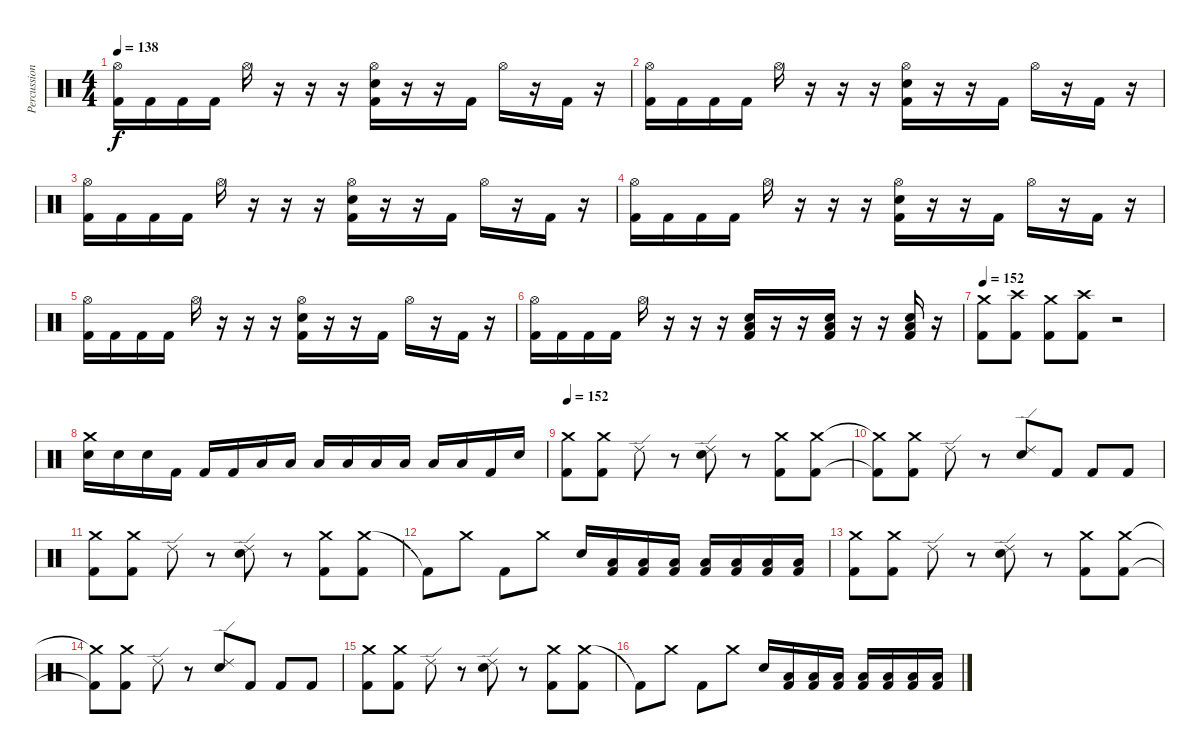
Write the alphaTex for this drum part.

\track ("Percussion" "Percussion") {instrument percussion}
\staff {score}
\articulation defaults
\ts (4 4)
\tempo 138
\clef neutral
\ks c
("Hi-Hat (open)" "Kick (hit) 2").16{dy f} "Kick (hit) 2".16 "Kick (hit) 2".16 "Kick (hit) 2".16 "Hi-Hat (open)".16 r.16 r.16 r.16 ("Hi-Hat (open)" "Electric Snare (hit)" "Kick (hit) 2").16 r.16 r.16 "Kick (hit) 2".16 "Hi-Hat (open)".16 r.16 "Kick (hit) 2".16 r.16 |
("Hi-Hat (open)" "Kick (hit) 2").16 "Kick (hit) 2".16 "Kick (hit) 2".16 "Kick (hit) 2".16 "Hi-Hat (open)".16 r.16 r.16 r.16 ("Hi-Hat (open)" "Electric Snare (hit)" "Kick (hit) 2").16 r.16 r.16 "Kick (hit) 2".16 "Hi-Hat (open)".16 r.16 "Kick (hit) 2".16 r.16 |
("Hi-Hat (open)" "Kick (hit) 2").16 "Kick (hit) 2".16 "Kick (hit) 2".16 "Kick (hit) 2".16 "Hi-Hat (open)".16 r.16 r.16 r.16 ("Hi-Hat (open)" "Electric Snare (hit)" "Kick (hit) 2").16 r.16 r.16 "Kick (hit) 2".16 "Hi-Hat (open)".16 r.16 "Kick (hit) 2".16 r.16 |
("Hi-Hat (open)" "Kick (hit) 2").16 "Kick (hit) 2".16 "Kick (hit) 2".16 "Kick (hit) 2".16 "Hi-Hat (open)".16 r.16 r.16 r.16 ("Hi-Hat (open)" "Electric Snare (hit)" "Kick (hit) 2").16 r.16 r.16 "Kick (hit) 2".16 "Hi-Hat (open)".16 r.16 "Kick (hit) 2".16 r.16 |
("Hi-Hat (open)" "Kick (hit) 2").16 "Kick (hit) 2".16 "Kick (hit) 2".16 "Kick (hit) 2".16 "Hi-Hat (open)".16 r.16 r.16 r.16 ("Hi-Hat (open)" "Electric Snare (hit)" "Kick (hit) 2").16 r.16 r.16 "Kick (hit) 2".16 "Hi-Hat (open)".16 r.16 "Kick (hit) 2".16 r.16 |
("Hi-Hat (open)" "Kick (hit) 2").16 "Kick (hit) 2".16 "Kick (hit) 2".16 "Kick (hit) 2".16 "Hi-Hat (open)".16 r.16 r.16 r.16 ("Electric Snare (hit)" "Low Tom (hit)" "Kick (hit) 2").16 r.16 r.16 ("Electric Snare (hit)" "Low Tom (hit)" "Kick (hit) 2").16 r.16 r.16 ("Electric Snare (hit)" "Low Tom (hit)" "Kick (hit) 2").16 r.16 |
\tempo 152
("Crash medium (hit)" "Kick (hit) 2").8 ("Crash high (hit)" "Kick (hit) 2").8 ("Crash medium (hit)" "Kick (hit) 2").8 ("Crash high (hit)" "Kick (hit) 2").8 r.2 |
("Crash medium (hit)" "Electric Snare (hit)").16 "Electric Snare (hit)".16 "Electric Snare (hit)".16 "Kick (hit) 2".16 "Kick (hit) 2".16 "Kick (hit) 2".16 "Low Tom (hit)".16 "Low Tom (hit)".16 "Low Tom (hit)".16 "Low Tom (hit)".16 "Low Floor Tom (hit)".16 "Low Floor Tom (hit)".16 "Low Floor Tom (hit)".16 "Low Floor Tom (hit)".16 "Kick (hit) 2".16 "Electric Snare (hit)".16 |
\tempo 152
("Crash medium (hit)" "Kick (hit) 2").8 ("Crash medium (hit)" "Kick (hit) 2").8 "Ride (edge) 2".8 r.8 ("Ride (edge) 2" "Electric Snare (hit)").8 r.8 ("Crash medium (hit)" "Kick (hit) 2").8 ("Crash medium (hit)" "Kick (hit) 2").8 |
("Crash medium (hit)"{t} "Kick (hit) 2"{t}).8 ("Crash medium (hit)" "Kick (hit) 2").8 "Ride (edge) 2".8 r.8 ("Ride (edge) 2" "Electric Snare (hit)").8 "Kick (hit) 2".8 "Kick (hit) 2".8 "Kick (hit) 2".8 |
("Crash medium (hit)" "Kick (hit) 2").8 ("Crash medium (hit)" "Kick (hit) 2").8 "Ride (edge) 2".8 r.8 ("Ride (edge) 2" "Electric Snare (hit)").8 r.8 ("Crash medium (hit)" "Kick (hit) 2").8 ("Crash medium (hit)" "Kick (hit) 2").8 |
"Kick (hit) 2"{t}.8 "Crash medium (hit)".8 "Kick (hit) 2".8 "Crash medium (hit)".8 "Electric Snare (hit)".16 ("Low Tom (hit)" "Kick (hit) 2").16 ("Low Tom (hit)" "Kick (hit) 2").16 ("Low Tom (hit)" "Kick (hit) 2").16 ("Low Floor Tom (hit)" "Kick (hit) 2").16 ("Low Floor Tom (hit)" "Kick (hit) 2").16 ("Low Floor Tom (hit)" "Kick (hit) 2").16 ("Low Floor Tom (hit)" "Kick (hit) 2").16 |
("Crash medium (hit)" "Kick (hit) 2").8 ("Crash medium (hit)" "Kick (hit) 2").8 "Ride (edge) 2".8 r.8 ("Ride (edge) 2" "Electric Snare (hit)").8 r.8 ("Crash medium (hit)" "Kick (hit) 2").8 ("Crash medium (hit)" "Kick (hit) 2").8 |
("Crash medium (hit)"{t} "Kick (hit) 2"{t}).8 ("Crash medium (hit)" "Kick (hit) 2").8 "Ride (edge) 2".8 r.8 ("Ride (edge) 2" "Electric Snare (hit)").8 "Kick (hit) 2".8 "Kick (hit) 2".8 "Kick (hit) 2".8 |
("Crash medium (hit)" "Kick (hit) 2").8 ("Crash medium (hit)" "Kick (hit) 2").8 "Ride (edge) 2".8 r.8 ("Ride (edge) 2" "Electric Snare (hit)").8 r.8 ("Crash medium (hit)" "Kick (hit) 2").8 ("Crash medium (hit)" "Kick (hit) 2").8 |
"Kick (hit) 2"{t}.8 "Crash medium (hit)".8 "Kick (hit) 2".8 "Crash medium (hit)".8 "Electric Snare (hit)".16 ("Low Tom (hit)" "Kick (hit) 2").16 ("Low Tom (hit)" "Kick (hit) 2").16 ("Low Tom (hit)" "Kick (hit) 2").16 ("Low Floor Tom (hit)" "Kick (hit) 2").16 ("Low Floor Tom (hit)" "Kick (hit) 2").16 ("Low Floor Tom (hit)" "Kick (hit) 2").16 ("Low Floor Tom (hit)" "Kick (hit) 2").16
